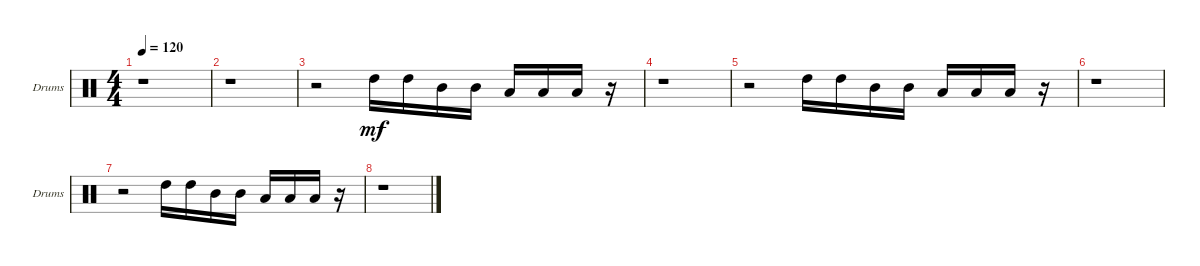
\bracketExtendMode groupsimilarinstruments
\singleTrackTrackNamePolicy allsystems
\multiTrackTrackNamePolicy allsystems
\firstSystemTrackNameOrientation horizontal
\otherSystemsTrackNameOrientation horizontal
\track ("Toms" "Drums") {instrument percussion}
\staff {score}
\articulation defaults
\ts (4 4)
\tempo 120
\clef neutral
\scale
0.333333
\ks c
r.1{dy mf} |
\scale
0.333333 r.1 |
\scale
0.333333 r.2 "High Tom (hit)".16 "High Tom (hit)".16 "Mid Tom (hit)".16 "Mid Tom (hit)".16 "Low Tom (hit)".16 "Low Tom (hit)".16 "Low Tom (hit)".16 r.16 |
\scale
0.333333 r.1 |
\scale
0.333333 r.2 "High Tom (hit)".16 "High Tom (hit)".16 "Mid Tom (hit)".16 "Mid Tom (hit)".16 "Low Tom (hit)".16 "Low Tom (hit)".16 "Low Tom (hit)".16 r.16 |
r.1 |
r.2 "High Tom (hit)".16 "High Tom (hit)".16 "Mid Tom (hit)".16 "Mid Tom (hit)".16 "Low Tom (hit)".16 "Low Tom (hit)".16 "Low Tom (hit)".16 r.16 |
r.1
